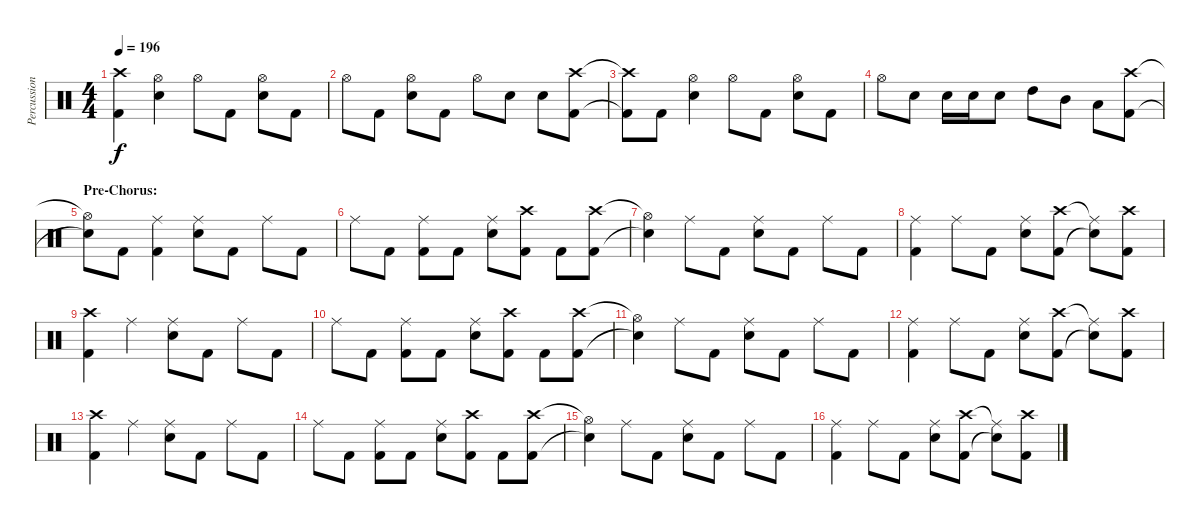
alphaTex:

\track ("Percussion" "Percussion") {instrument percussion}
\staff {score}
\articulation defaults
\ts (4 4)
\tempo 196
\clef neutral
\ks c
("Crash high (hit)" "Kick (hit) 2").4{dy f} ("Hi-Hat (open)" "Snare (hit) 2").4 "Hi-Hat (open)".8 "Kick (hit) 2".8 ("Hi-Hat (open)" "Snare (hit) 2").8 "Kick (hit) 2".8 |
"Hi-Hat (open)".8 "Kick (hit) 2".8 ("Hi-Hat (open)" "Snare (hit) 2").8 "Kick (hit) 2".8 "Hi-Hat (open)".8 "Snare (hit) 2".8 "Snare (hit) 2".8 ("Crash high (hit)" "Kick (hit) 2").8 |
("Crash high (hit)"{t} "Kick (hit) 2"{t}).8 "Kick (hit) 2".8 ("Hi-Hat (open)" "Snare (hit) 2").4 "Hi-Hat (open)".8 "Kick (hit) 2".8 ("Hi-Hat (open)" "Snare (hit) 2").8 "Kick (hit) 2".8 |
"Hi-Hat (open)".8 "Snare (hit) 2".8 "Snare (hit) 2".16 "Snare (hit) 2".16 "Snare (hit) 2".8 "High Tom (hit)".8 "Mid Tom (hit)".8 "Low Tom (hit)".8 ("Crash high (hit)" "Kick (hit) 2").8 |
\section ("" "Pre-Chorus:")
("Hi-Hat (open)"{t} "Snare (hit)"{t}).8 "Kick (hit) 2".8 ("Ride (middle)" "Kick (hit) 2").4 ("Ride (middle)" "Snare (hit) 2").8 "Kick (hit) 2".8 "Ride (middle)".8 "Kick (hit) 2".8 |
"Ride (middle)".8 "Kick (hit) 2".8 ("Ride (middle)" "Kick (hit) 2").8 "Kick (hit) 2".8 ("Ride (middle)" "Snare (hit) 2").8 ("Crash high (hit)" "Kick (hit) 2").8 "Kick (hit) 2".8 ("Crash high (hit)" "Kick (hit) 2").8 |
("Hi-Hat (open)"{t} "Snare (hit)"{t}).4 "Ride (middle)".8 "Kick (hit) 2".8 ("Ride (middle)" "Snare (hit) 2").8 "Kick (hit) 2".8 "Ride (middle)".8 "Kick (hit) 2".8 |
("Ride (middle)" "Kick (hit) 2").4 "Ride (middle)".8 "Kick (hit) 2".8 ("Ride (middle)" "Snare (hit) 2").8 ("Crash high (hit)" "Kick (hit) 2").8 ("Ride (middle)"{t} "Snare (hit) 2"{t}).8 ("Crash high (hit)" "Kick (hit) 2").8 |
("Crash high (hit)" "Kick (hit) 2").4 "Ride (middle)".4 ("Ride (middle)" "Snare (hit) 2").8 "Kick (hit) 2".8 "Ride (middle)".8 "Kick (hit) 2".8 |
"Ride (middle)".8 "Kick (hit) 2".8 ("Ride (middle)" "Kick (hit) 2").8 "Kick (hit) 2".8 ("Ride (middle)" "Snare (hit) 2").8 ("Crash high (hit)" "Kick (hit) 2").8 "Kick (hit) 2".8 ("Crash high (hit)" "Kick (hit) 2").8 |
("Hi-Hat (open)"{t} "Snare (hit)"{t}).4 "Ride (middle)".8 "Kick (hit) 2".8 ("Ride (middle)" "Snare (hit) 2").8 "Kick (hit) 2".8 "Ride (middle)".8 "Kick (hit) 2".8 |
("Ride (middle)" "Kick (hit) 2").4 "Ride (middle)".8 "Kick (hit) 2".8 ("Ride (middle)" "Snare (hit) 2").8 ("Crash high (hit)" "Kick (hit) 2").8 ("Ride (middle)"{t} "Snare (hit) 2"{t}).8 ("Crash high (hit)" "Kick (hit) 2").8 |
("Crash high (hit)" "Kick (hit) 2").4 "Ride (middle)".4 ("Ride (middle)" "Snare (hit) 2").8 "Kick (hit) 2".8 "Ride (middle)".8 "Kick (hit) 2".8 |
"Ride (middle)".8 "Kick (hit) 2".8 ("Ride (middle)" "Kick (hit) 2").8 "Kick (hit) 2".8 ("Ride (middle)" "Snare (hit) 2").8 ("Crash high (hit)" "Kick (hit) 2").8 "Kick (hit) 2".8 ("Crash high (hit)" "Kick (hit) 2").8 |
("Hi-Hat (open)"{t} "Snare (hit)"{t}).4 "Ride (middle)".8 "Kick (hit) 2".8 ("Ride (middle)" "Snare (hit) 2").8 "Kick (hit) 2".8 "Ride (middle)".8 "Kick (hit) 2".8 |
("Ride (middle)" "Kick (hit) 2").4 "Ride (middle)".8 "Kick (hit) 2".8 ("Ride (middle)" "Snare (hit) 2").8 ("Crash high (hit)" "Kick (hit) 2").8 ("Ride (middle)"{t} "Snare (hit) 2"{t}).8 ("Crash high (hit)" "Kick (hit) 2").8
